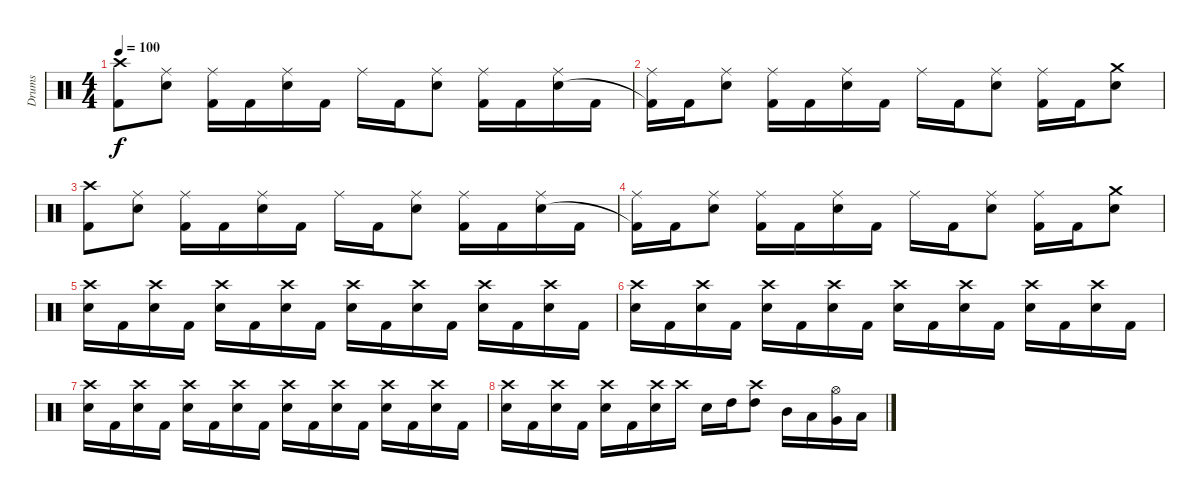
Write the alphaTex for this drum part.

\track ("Drums" "Drums") {instrument percussion}
\staff {score}
\articulation defaults
\ts (4 4)
\tempo 100
\clef neutral
\ks c
("Crash high (hit)" "Kick (hit) 2").8{dy f} ("Ride (middle)" "Snare (hit) 2").8 ("Ride (middle)" "Kick (hit) 2").16 "Kick (hit) 2".16 ("Ride (middle)" "Snare (hit) 2").16 "Kick (hit) 2".16 "Ride (middle)".16 "Kick (hit) 2".16 ("Ride (middle)" "Snare (hit) 2").8 ("Ride (middle)" "Kick (hit) 2").16 "Kick (hit) 2".16 ("Ride (middle)" "Snare (hit) 2").16 "Kick (hit) 2".16 |
("Ride (middle)" "Kick (hit) 2"{t}).16 "Kick (hit) 2".16 ("Ride (middle)" "Snare (hit) 2").8 ("Ride (middle)" "Kick (hit) 2").16 "Kick (hit) 2".16 ("Ride (middle)" "Snare (hit) 2").16 "Kick (hit) 2".16 "Ride (middle)".16 "Kick (hit) 2".16 ("Ride (middle)" "Snare (hit) 2").8 ("Ride (middle)" "Kick (hit) 2").16 "Kick (hit) 2".16 ("Crash medium (hit)" "Snare (hit) 2").8 |
("Crash high (hit)" "Kick (hit) 2").8 ("Ride (middle)" "Snare (hit) 2").8 ("Ride (middle)" "Kick (hit) 2").16 "Kick (hit) 2".16 ("Ride (middle)" "Snare (hit) 2").16 "Kick (hit) 2".16 "Ride (middle)".16 "Kick (hit) 2".16 ("Ride (middle)" "Snare (hit) 2").8 ("Ride (middle)" "Kick (hit) 2").16 "Kick (hit) 2".16 ("Ride (middle)" "Snare (hit) 2").16 "Kick (hit) 2".16 |
("Ride (middle)" "Kick (hit) 2"{t}).16 "Kick (hit) 2".16 ("Ride (middle)" "Snare (hit) 2").8 ("Ride (middle)" "Kick (hit) 2").16 "Kick (hit) 2".16 ("Ride (middle)" "Snare (hit) 2").16 "Kick (hit) 2".16 "Ride (middle)".16 "Kick (hit) 2".16 ("Ride (middle)" "Snare (hit) 2").8 ("Ride (middle)" "Kick (hit) 2").16 "Kick (hit) 2".16 ("Crash medium (hit)" "Snare (hit) 2").8 |
("Crash high (hit)" "Snare (hit) 2").16 "Kick (hit) 2".16 ("Crash high (hit)" "Snare (hit) 2").16 "Kick (hit) 2".16 ("Crash high (hit)" "Snare (hit) 2").16 "Kick (hit) 2".16 ("Crash high (hit)" "Snare (hit) 2").16 "Kick (hit) 2".16 ("Crash high (hit)" "Snare (hit) 2").16 "Kick (hit) 2".16 ("Crash high (hit)" "Snare (hit) 2").16 "Kick (hit) 2".16 ("Crash high (hit)" "Snare (hit) 2").16 "Kick (hit) 2".16 ("Crash high (hit)" "Snare (hit) 2").16 "Kick (hit) 2".16 |
("Crash high (hit)" "Snare (hit) 2").16 "Kick (hit) 2".16 ("Crash high (hit)" "Snare (hit) 2").16 "Kick (hit) 2".16 ("Crash high (hit)" "Snare (hit) 2").16 "Kick (hit) 2".16 ("Crash high (hit)" "Snare (hit) 2").16 "Kick (hit) 2".16 ("Crash high (hit)" "Snare (hit) 2").16 "Kick (hit) 2".16 ("Crash high (hit)" "Snare (hit) 2").16 "Kick (hit) 2".16 ("Crash high (hit)" "Snare (hit) 2").16 "Kick (hit) 2".16 ("Crash high (hit)" "Snare (hit) 2").16 "Kick (hit) 2".16 |
("Crash high (hit)" "Snare (hit) 2").16 "Kick (hit) 2".16 ("Crash high (hit)" "Snare (hit) 2").16 "Kick (hit) 2".16 ("Crash high (hit)" "Snare (hit) 2").16 "Kick (hit) 2".16 ("Crash high (hit)" "Snare (hit) 2").16 "Kick (hit) 2".16 ("Crash high (hit)" "Snare (hit) 2").16 "Kick (hit) 2".16 ("Crash high (hit)" "Snare (hit) 2").16 "Kick (hit) 2".16 ("Crash high (hit)" "Snare (hit) 2").16 "Kick (hit) 2".16 ("Crash high (hit)" "Snare (hit) 2").16 "Kick (hit) 2".16 |
("Crash high (hit)" "Snare (hit) 2").16 "Kick (hit) 2".16 ("Crash high (hit)" "Snare (hit) 2").16 "Kick (hit) 2".16 ("Crash high (hit)" "Snare (hit) 2").16 "Kick (hit) 2".16 ("Crash high (hit)" "Snare (hit) 2").16 "Crash high (hit)".16 "Snare (hit) 2".16 "High Tom (hit)".16 ("Crash high (hit)" "High Tom (hit)").8 "Mid Tom (hit)".16 "Low Tom (hit)".16 ("Hi-Hat (open)" "Very Low Tom (hit)").16 "Low Floor Tom (hit)".16
